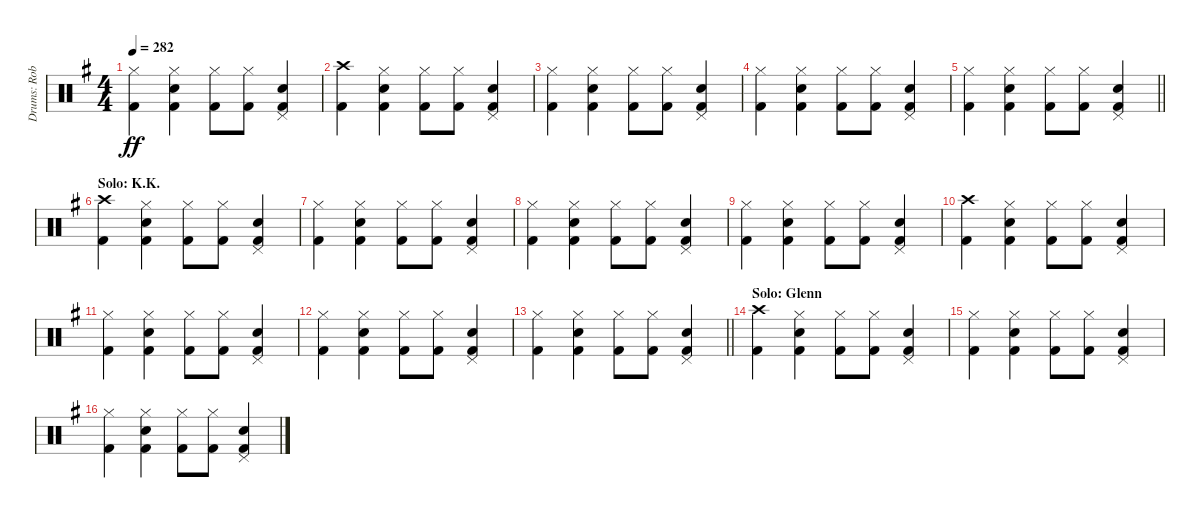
\track ("Drums: Rob" "Drums: Rob") {instrument percussion}
\staff {score}
\articulation defaults
\ts (4 4)
\tempo 282
\clef neutral
\ks g
("Hi-Hat (closed)" "Kick (hit) 2").4{dy ff} ("Hi-Hat (closed)" "Snare (hit) 2" "Kick (hit) 2").4 ("Hi-Hat (closed)" "Kick (hit) 2").8 ("Hi-Hat (closed)" "Kick (hit) 2").8 ("Pedal Hi-Hat (hit)" "Snare (hit) 2" "Kick (hit) 2").4 |
("Crash high (hit)" "Kick (hit) 2").4 ("Hi-Hat (closed)" "Snare (hit) 2" "Kick (hit) 2").4 ("Hi-Hat (closed)" "Kick (hit) 2").8 ("Hi-Hat (closed)" "Kick (hit) 2").8 ("Pedal Hi-Hat (hit)" "Snare (hit) 2" "Kick (hit) 2").4 |
("Hi-Hat (closed)" "Kick (hit) 2").4 ("Hi-Hat (closed)" "Snare (hit) 2" "Kick (hit) 2").4 ("Hi-Hat (closed)" "Kick (hit) 2").8 ("Hi-Hat (closed)" "Kick (hit) 2").8 ("Pedal Hi-Hat (hit)" "Snare (hit) 2" "Kick (hit) 2").4 |
("Hi-Hat (closed)" "Kick (hit) 2").4 ("Hi-Hat (closed)" "Snare (hit) 2" "Kick (hit) 2").4 ("Hi-Hat (closed)" "Kick (hit) 2").8 ("Hi-Hat (closed)" "Kick (hit) 2").8 ("Pedal Hi-Hat (hit)" "Snare (hit) 2" "Kick (hit) 2").4 |
\barLineRight lightlight
("Hi-Hat (closed)" "Kick (hit) 2").4 ("Hi-Hat (closed)" "Snare (hit) 2" "Kick (hit) 2").4 ("Hi-Hat (closed)" "Kick (hit) 2").8 ("Hi-Hat (closed)" "Kick (hit) 2").8 ("Pedal Hi-Hat (hit)" "Snare (hit) 2" "Kick (hit) 2").4 |
\section ("" "Solo: K.K.")
("Crash high (hit)" "Kick (hit) 2").4 ("Hi-Hat (closed)" "Snare (hit) 2" "Kick (hit) 2").4 ("Hi-Hat (closed)" "Kick (hit) 2").8 ("Hi-Hat (closed)" "Kick (hit) 2").8 ("Pedal Hi-Hat (hit)" "Snare (hit) 2" "Kick (hit) 2").4 |
("Hi-Hat (closed)" "Kick (hit) 2").4 ("Hi-Hat (closed)" "Snare (hit) 2" "Kick (hit) 2").4 ("Hi-Hat (closed)" "Kick (hit) 2").8 ("Hi-Hat (closed)" "Kick (hit) 2").8 ("Pedal Hi-Hat (hit)" "Snare (hit) 2" "Kick (hit) 2").4 |
("Hi-Hat (closed)" "Kick (hit) 2").4 ("Hi-Hat (closed)" "Snare (hit) 2" "Kick (hit) 2").4 ("Hi-Hat (closed)" "Kick (hit) 2").8 ("Hi-Hat (closed)" "Kick (hit) 2").8 ("Pedal Hi-Hat (hit)" "Snare (hit) 2" "Kick (hit) 2").4 |
("Hi-Hat (closed)" "Kick (hit) 2").4 ("Hi-Hat (closed)" "Snare (hit) 2" "Kick (hit) 2").4 ("Hi-Hat (closed)" "Kick (hit) 2").8 ("Hi-Hat (closed)" "Kick (hit) 2").8 ("Pedal Hi-Hat (hit)" "Snare (hit) 2" "Kick (hit) 2").4 |
("Crash high (hit)" "Kick (hit) 2").4 ("Hi-Hat (closed)" "Snare (hit) 2" "Kick (hit) 2").4 ("Hi-Hat (closed)" "Kick (hit) 2").8 ("Hi-Hat (closed)" "Kick (hit) 2").8 ("Pedal Hi-Hat (hit)" "Snare (hit) 2" "Kick (hit) 2").4 |
("Hi-Hat (closed)" "Kick (hit) 2").4 ("Hi-Hat (closed)" "Snare (hit) 2" "Kick (hit) 2").4 ("Hi-Hat (closed)" "Kick (hit) 2").8 ("Hi-Hat (closed)" "Kick (hit) 2").8 ("Pedal Hi-Hat (hit)" "Snare (hit) 2" "Kick (hit) 2").4 |
("Hi-Hat (closed)" "Kick (hit) 2").4 ("Hi-Hat (closed)" "Snare (hit) 2" "Kick (hit) 2").4 ("Hi-Hat (closed)" "Kick (hit) 2").8 ("Hi-Hat (closed)" "Kick (hit) 2").8 ("Pedal Hi-Hat (hit)" "Snare (hit) 2" "Kick (hit) 2").4 |
\barLineRight lightlight
("Hi-Hat (closed)" "Kick (hit) 2").4 ("Hi-Hat (closed)" "Snare (hit) 2" "Kick (hit) 2").4 ("Hi-Hat (closed)" "Kick (hit) 2").8 ("Hi-Hat (closed)" "Kick (hit) 2").8 ("Pedal Hi-Hat (hit)" "Snare (hit) 2" "Kick (hit) 2").4 |
\section ("" "Solo: Glenn")
("Crash high (hit)" "Kick (hit) 2").4 ("Hi-Hat (closed)" "Snare (hit) 2" "Kick (hit) 2").4 ("Hi-Hat (closed)" "Kick (hit) 2").8 ("Hi-Hat (closed)" "Kick (hit) 2").8 ("Pedal Hi-Hat (hit)" "Snare (hit) 2" "Kick (hit) 2").4 |
("Hi-Hat (closed)" "Kick (hit) 2").4 ("Hi-Hat (closed)" "Snare (hit) 2" "Kick (hit) 2").4 ("Hi-Hat (closed)" "Kick (hit) 2").8 ("Hi-Hat (closed)" "Kick (hit) 2").8 ("Pedal Hi-Hat (hit)" "Snare (hit) 2" "Kick (hit) 2").4 |
("Hi-Hat (closed)" "Kick (hit) 2").4 ("Hi-Hat (closed)" "Snare (hit) 2" "Kick (hit) 2").4 ("Hi-Hat (closed)" "Kick (hit) 2").8 ("Hi-Hat (closed)" "Kick (hit) 2").8 ("Pedal Hi-Hat (hit)" "Snare (hit) 2" "Kick (hit) 2").4
